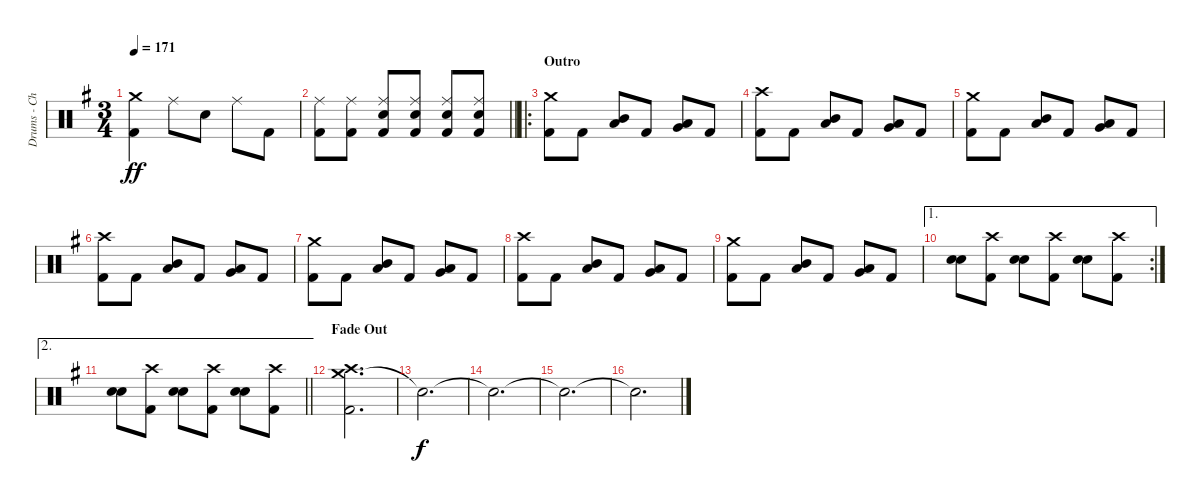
\track ("Drums - Chris Hornbrook" "Drums - Ch") {instrument percussion}
\staff {score}
\articulation defaults
\ts (3 4)
\tempo 171
\clef neutral
\ks eminor
("Crash medium (hit)" "Kick (hit) 2").4{dy ff} "Ride (middle)".8 "Electric Snare (hit)".8 "Ride (middle)".8 "Kick (hit) 2".8 |
\barLineRight lightlight
("Ride (middle)" "Kick (hit) 2").8 ("Ride (middle)" "Kick (hit) 2").8 ("Ride (middle)" "Electric Snare (hit)" "Kick (hit) 2").8 ("Ride (middle)" "Electric Snare (hit)" "Kick (hit) 2").8 ("Ride (middle)" "Electric Snare (hit)" "Kick (hit) 2").8 ("Ride (middle)" "Electric Snare (hit)" "Kick (hit) 2").8 |
\ro
\section ("" "Outro")
("Crash medium (hit)" "Kick (hit) 2").8 "Kick (hit) 2".8 ("Mid Tom (hit)" "Low Tom (hit)").8{bu 120} "Kick (hit) 2".8 ("Low Tom (hit)" "Very Low Tom (hit)").8{bu 120} "Kick (hit) 2".8 |
("Crash high (hit)" "Kick (hit) 2").8 "Kick (hit) 2".8 ("Mid Tom (hit)" "Low Tom (hit)").8{bu 120} "Kick (hit) 2".8 ("Low Tom (hit)" "Very Low Tom (hit)").8{bu 120} "Kick (hit) 2".8 |
("Crash medium (hit)" "Kick (hit) 2").8 "Kick (hit) 2".8 ("Mid Tom (hit)" "Low Tom (hit)").8{bu 120} "Kick (hit) 2".8 ("Low Tom (hit)" "Very Low Tom (hit)").8{bu 120} "Kick (hit) 2".8 |
("Crash high (hit)" "Kick (hit) 2").8 "Kick (hit) 2".8 ("Mid Tom (hit)" "Low Tom (hit)").8{bu 120} "Kick (hit) 2".8 ("Low Tom (hit)" "Very Low Tom (hit)").8{bu 120} "Kick (hit) 2".8 |
("Crash medium (hit)" "Kick (hit) 2").8 "Kick (hit) 2".8 ("Mid Tom (hit)" "Low Tom (hit)").8{bu 120} "Kick (hit) 2".8 ("Low Tom (hit)" "Very Low Tom (hit)").8{bu 120} "Kick (hit) 2".8 |
("Crash high (hit)" "Kick (hit) 2").8 "Kick (hit) 2".8 ("Mid Tom (hit)" "Low Tom (hit)").8{bu 120} "Kick (hit) 2".8 ("Low Tom (hit)" "Very Low Tom (hit)").8{bu 120} "Kick (hit) 2".8 |
("Crash medium (hit)" "Kick (hit) 2").8 "Kick (hit) 2".8 ("Mid Tom (hit)" "Low Tom (hit)").8{bu 120} "Kick (hit) 2".8 ("Low Tom (hit)" "Very Low Tom (hit)").8{bu 120} "Kick (hit) 2".8 |
\ae 1
\rc 2
("Electric Snare (hit)" "Electric Snare (hit)").8{bu 120} ("Crash high (hit)" "Kick (hit) 2").8 ("Electric Snare (hit)" "Electric Snare (hit)").8{bu 120} ("Crash high (hit)" "Kick (hit) 2").8 ("Electric Snare (hit)" "Electric Snare (hit)").8{bu 120} ("Crash high (hit)" "Kick (hit) 2").8 |
\ae 2
\barLineRight lightlight
("Electric Snare (hit)" "Electric Snare (hit)").8{bu 120} ("Crash high (hit)" "Kick (hit) 2").8 ("Electric Snare (hit)" "Electric Snare (hit)").8{bu 120} ("Crash high (hit)" "Kick (hit) 2").8 ("Electric Snare (hit)" "Electric Snare (hit)").8{bu 120} ("Crash high (hit)" "Kick (hit) 2").8 |
\section ("" "Fade Out")
("Crash medium (hit)" "Crash high (hit)" "Kick (hit) 2").2{d volume 0} |
"Snare (hit)"{t}.2{d dy f} |
"Snare (hit)"{t}.2{d} |
"Snare (hit)"{t}.2{d} |
"Snare (hit)"{t}.2{d}
